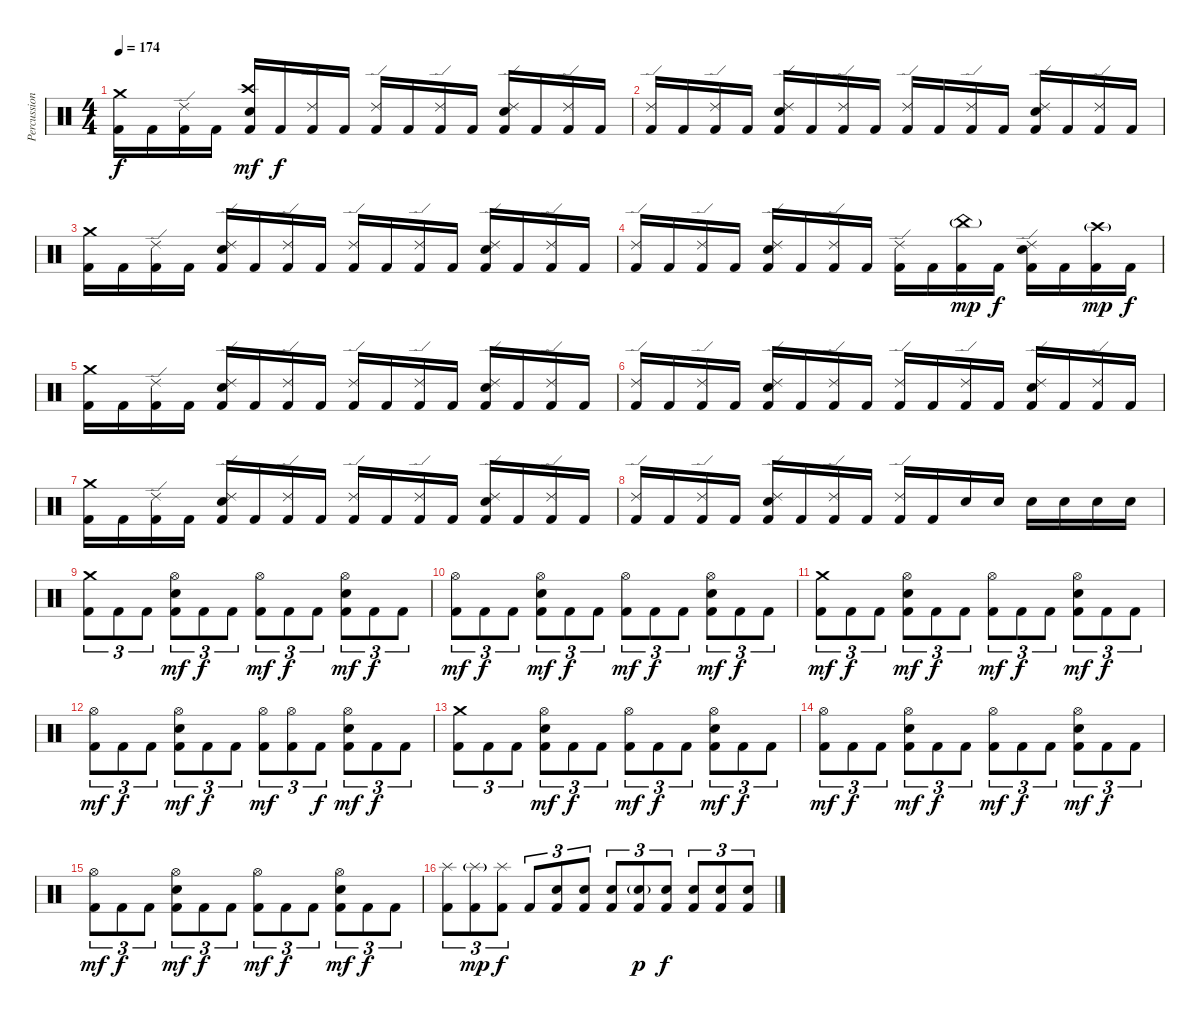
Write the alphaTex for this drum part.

\track ("Percussion" "Percussion") {instrument percussion}
\staff {score}
\articulation defaults
\ts (4 4)
\tempo 174
\clef neutral
\ks c
("Crash medium (hit)" "Kick (hit) 2").16{dy f} "Kick (hit) 2".16 ("Ride (edge) 2" "Kick (hit) 2").16 "Kick (hit) 2".16 ("Crash high (hit)" "Electric Snare (hit)" "Kick (hit) 2").16{dy mf} "Kick (hit) 2".16{dy f} ("Ride (edge) 2" "Kick (hit) 2").16 "Kick (hit) 2".16 ("Ride (edge) 2" "Kick (hit) 2").16 "Kick (hit) 2".16 ("Ride (edge) 2" "Kick (hit) 2").16 "Kick (hit) 2".16 ("Ride (edge) 2" "Electric Snare (hit)" "Kick (hit) 2").16 "Kick (hit) 2".16 ("Ride (edge) 2" "Kick (hit) 2").16 "Kick (hit) 2".16 |
("Ride (edge) 2" "Kick (hit) 2").16 "Kick (hit) 2".16 ("Ride (edge) 2" "Kick (hit) 2").16 "Kick (hit) 2".16 ("Ride (edge) 2" "Electric Snare (hit)" "Kick (hit) 2").16 "Kick (hit) 2".16 ("Ride (edge) 2" "Kick (hit) 2").16 "Kick (hit) 2".16 ("Ride (edge) 2" "Kick (hit) 2").16 "Kick (hit) 2".16 ("Ride (edge) 2" "Kick (hit) 2").16 "Kick (hit) 2".16 ("Ride (edge) 2" "Electric Snare (hit)" "Kick (hit) 2").16 "Kick (hit) 2".16 ("Ride (edge) 2" "Kick (hit) 2").16 "Kick (hit) 2".16 |
("Crash medium (hit)" "Kick (hit) 2").16 "Kick (hit) 2".16 ("Ride (edge) 2" "Kick (hit) 2").16 "Kick (hit) 2".16 ("Ride (edge) 2" "Electric Snare (hit)" "Kick (hit) 2").16 "Kick (hit) 2".16 ("Ride (edge) 2" "Kick (hit) 2").16 "Kick (hit) 2".16 ("Ride (edge) 2" "Kick (hit) 2").16 "Kick (hit) 2".16 ("Ride (edge) 2" "Kick (hit) 2").16 "Kick (hit) 2".16 ("Ride (edge) 2" "Electric Snare (hit)" "Kick (hit) 2").16 "Kick (hit) 2".16 ("Ride (edge) 2" "Kick (hit) 2").16 "Kick (hit) 2".16 |
("Ride (edge) 2" "Kick (hit) 2").16 "Kick (hit) 2".16 ("Ride (edge) 2" "Kick (hit) 2").16 "Kick (hit) 2".16 ("Ride (edge) 2" "Electric Snare (hit)" "Kick (hit) 2").16 "Kick (hit) 2".16 ("Ride (edge) 2" "Kick (hit) 2").16 "Kick (hit) 2".16 ("Ride (edge) 2" "Kick (hit) 2").16 "Kick (hit) 2".16 ("China (hit)"{g} "Kick (hit) 2").16{dy mp} "Kick (hit) 2".16{dy f} ("Ride (edge) 2" "Electric Snare (hit)" "Kick (hit) 2").16 "Kick (hit) 2".16 ("Crash high (hit)"{g} "Kick (hit) 2").16{dy mp} "Kick (hit) 2".16{dy f} |
("Crash medium (hit)" "Kick (hit) 2").16 "Kick (hit) 2".16 ("Ride (edge) 2" "Kick (hit) 2").16 "Kick (hit) 2".16 ("Ride (edge) 2" "Electric Snare (hit)" "Kick (hit) 2").16 "Kick (hit) 2".16 ("Ride (edge) 2" "Kick (hit) 2").16 "Kick (hit) 2".16 ("Ride (edge) 2" "Kick (hit) 2").16 "Kick (hit) 2".16 ("Ride (edge) 2" "Kick (hit) 2").16 "Kick (hit) 2".16 ("Ride (edge) 2" "Electric Snare (hit)" "Kick (hit) 2").16 "Kick (hit) 2".16 ("Ride (edge) 2" "Kick (hit) 2").16 "Kick (hit) 2".16 |
("Ride (edge) 2" "Kick (hit) 2").16 "Kick (hit) 2".16 ("Ride (edge) 2" "Kick (hit) 2").16 "Kick (hit) 2".16 ("Ride (edge) 2" "Electric Snare (hit)" "Kick (hit) 2").16 "Kick (hit) 2".16 ("Ride (edge) 2" "Kick (hit) 2").16 "Kick (hit) 2".16 ("Ride (edge) 2" "Kick (hit) 2").16 "Kick (hit) 2".16 ("Ride (edge) 2" "Kick (hit) 2").16 "Kick (hit) 2".16 ("Ride (edge) 2" "Electric Snare (hit)" "Kick (hit) 2").16 "Kick (hit) 2".16 ("Ride (edge) 2" "Kick (hit) 2").16 "Kick (hit) 2".16 |
("Crash medium (hit)" "Kick (hit) 2").16 "Kick (hit) 2".16 ("Ride (edge) 2" "Kick (hit) 2").16 "Kick (hit) 2".16 ("Ride (edge) 2" "Electric Snare (hit)" "Kick (hit) 2").16 "Kick (hit) 2".16 ("Ride (edge) 2" "Kick (hit) 2").16 "Kick (hit) 2".16 ("Ride (edge) 2" "Kick (hit) 2").16 "Kick (hit) 2".16 ("Ride (edge) 2" "Kick (hit) 2").16 "Kick (hit) 2".16 ("Ride (edge) 2" "Electric Snare (hit)" "Kick (hit) 2").16 "Kick (hit) 2".16 ("Ride (edge) 2" "Kick (hit) 2").16 "Kick (hit) 2".16 |
("Ride (edge) 2" "Kick (hit) 2").16 "Kick (hit) 2".16 ("Ride (edge) 2" "Kick (hit) 2").16 "Kick (hit) 2".16 ("Ride (edge) 2" "Electric Snare (hit)" "Kick (hit) 2").16 "Kick (hit) 2".16 ("Ride (edge) 2" "Kick (hit) 2").16 "Kick (hit) 2".16 ("Ride (edge) 2" "Kick (hit) 2").16 "Kick (hit) 2".16 "Electric Snare (hit)".16 "Electric Snare (hit)".16 "Electric Snare (hit)".16 "Electric Snare (hit)".16 "Electric Snare (hit)".16 "Electric Snare (hit)".16 |
("Crash medium (hit)" "Kick (hit) 2").8{tu (3 2)} "Kick (hit) 2".8{tu (3 2)} "Kick (hit) 2".8{tu (3 2)} ("Hi-Hat (open)" "Electric Snare (hit)" "Kick (hit) 2").8{tu (3 2) dy mf} "Kick (hit) 2".8{tu (3 2) dy f} "Kick (hit) 2".8{tu (3 2)} ("Hi-Hat (open)" "Kick (hit) 2").8{tu (3 2) dy mf} "Kick (hit) 2".8{tu (3 2) dy f} "Kick (hit) 2".8{tu (3 2)} ("Hi-Hat (open)" "Electric Snare (hit)" "Kick (hit) 2").8{tu (3 2) dy mf} "Kick (hit) 2".8{tu (3 2) dy f} "Kick (hit) 2".8{tu (3 2)} |
("Hi-Hat (open)" "Kick (hit) 2").8{tu (3 2) dy mf} "Kick (hit) 2".8{tu (3 2) dy f} "Kick (hit) 2".8{tu (3 2)} ("Hi-Hat (open)" "Electric Snare (hit)" "Kick (hit) 2").8{tu (3 2) dy mf} "Kick (hit) 2".8{tu (3 2) dy f} "Kick (hit) 2".8{tu (3 2)} ("Hi-Hat (open)" "Kick (hit) 2").8{tu (3 2) dy mf} "Kick (hit) 2".8{tu (3 2) dy f} "Kick (hit) 2".8{tu (3 2)} ("Hi-Hat (open)" "Electric Snare (hit)" "Kick (hit) 2").8{tu (3 2) dy mf} "Kick (hit) 2".8{tu (3 2) dy f} "Kick (hit) 2".8{tu (3 2)} |
("Crash medium (hit)" "Kick (hit) 2").8{tu (3 2) dy mf} "Kick (hit) 2".8{tu (3 2) dy f} "Kick (hit) 2".8{tu (3 2)} ("Hi-Hat (open)" "Electric Snare (hit)" "Kick (hit) 2").8{tu (3 2) dy mf} "Kick (hit) 2".8{tu (3 2) dy f} "Kick (hit) 2".8{tu (3 2)} ("Hi-Hat (open)" "Kick (hit) 2").8{tu (3 2) dy mf} "Kick (hit) 2".8{tu (3 2) dy f} "Kick (hit) 2".8{tu (3 2)} ("Hi-Hat (open)" "Electric Snare (hit)" "Kick (hit) 2").8{tu (3 2) dy mf} "Kick (hit) 2".8{tu (3 2) dy f} "Kick (hit) 2".8{tu (3 2)} |
("Hi-Hat (open)" "Kick (hit) 2").8{tu (3 2) dy mf} "Kick (hit) 2".8{tu (3 2) dy f} "Kick (hit) 2".8{tu (3 2)} ("Hi-Hat (open)" "Electric Snare (hit)" "Kick (hit) 2").8{tu (3 2) dy mf} "Kick (hit) 2".8{tu (3 2) dy f} "Kick (hit) 2".8{tu (3 2)} ("Hi-Hat (open)" "Kick (hit) 2").8{tu (3 2) dy mf} ("Hi-Hat (open)" "Kick (hit) 2").8{tu (3 2)} "Kick (hit) 2".8{tu (3 2) dy f} ("Hi-Hat (open)" "Electric Snare (hit)" "Kick (hit) 2").8{tu (3 2) dy mf} "Kick (hit) 2".8{tu (3 2) dy f} "Kick (hit) 2".8{tu (3 2)} |
("Crash medium (hit)" "Kick (hit) 2").8{tu (3 2)} "Kick (hit) 2".8{tu (3 2)} "Kick (hit) 2".8{tu (3 2)} ("Hi-Hat (open)" "Electric Snare (hit)" "Kick (hit) 2").8{tu (3 2) dy mf} "Kick (hit) 2".8{tu (3 2) dy f} "Kick (hit) 2".8{tu (3 2)} ("Hi-Hat (open)" "Kick (hit) 2").8{tu (3 2) dy mf} "Kick (hit) 2".8{tu (3 2) dy f} "Kick (hit) 2".8{tu (3 2)} ("Hi-Hat (open)" "Electric Snare (hit)" "Kick (hit) 2").8{tu (3 2) dy mf} "Kick (hit) 2".8{tu (3 2) dy f} "Kick (hit) 2".8{tu (3 2)} |
("Hi-Hat (open)" "Kick (hit) 2").8{tu (3 2) dy mf} "Kick (hit) 2".8{tu (3 2) dy f} "Kick (hit) 2".8{tu (3 2)} ("Hi-Hat (open)" "Electric Snare (hit)" "Kick (hit) 2").8{tu (3 2) dy mf} "Kick (hit) 2".8{tu (3 2) dy f} "Kick (hit) 2".8{tu (3 2)} ("Hi-Hat (open)" "Kick (hit) 2").8{tu (3 2) dy mf} "Kick (hit) 2".8{tu (3 2) dy f} "Kick (hit) 2".8{tu (3 2)} ("Hi-Hat (open)" "Electric Snare (hit)" "Kick (hit) 2").8{tu (3 2) dy mf} "Kick (hit) 2".8{tu (3 2) dy f} "Kick (hit) 2".8{tu (3 2)} |
("Hi-Hat (open)" "Kick (hit) 2").8{tu (3 2) dy mf} "Kick (hit) 2".8{tu (3 2) dy f} "Kick (hit) 2".8{tu (3 2)} ("Hi-Hat (open)" "Electric Snare (hit)" "Kick (hit) 2").8{tu (3 2) dy mf} "Kick (hit) 2".8{tu (3 2) dy f} "Kick (hit) 2".8{tu (3 2)} ("Hi-Hat (open)" "Kick (hit) 2").8{tu (3 2) dy mf} "Kick (hit) 2".8{tu (3 2) dy f} "Kick (hit) 2".8{tu (3 2)} ("Hi-Hat (open)" "Electric Snare (hit)" "Kick (hit) 2").8{tu (3 2) dy mf} "Kick (hit) 2".8{tu (3 2) dy f} "Kick (hit) 2".8{tu (3 2)} |
("Splash (hit)" "Kick (hit) 2").8{tu (3 2)} ("Splash (hit)"{g} "Kick (hit) 2").8{tu (3 2) dy mp} ("Splash (hit)" "Kick (hit) 2").8{tu (3 2) dy f} "Kick (hit) 2".8{tu (3 2)} ("Electric Snare (hit)" "Kick (hit) 2").8{tu (3 2)} ("Electric Snare (hit)" "Kick (hit) 2").8{tu (3 2)} ("Electric Snare (hit)" "Kick (hit) 2").8{tu (3 2)} ("Electric Snare (hit)"{g} "Kick (hit) 2").8{tu (3 2) dy p} ("Electric Snare (hit)" "Kick (hit) 2").8{tu (3 2) dy f} ("Electric Snare (hit)" "Kick (hit) 2").8{tu (3 2)} ("Electric Snare (hit)" "Kick (hit) 2").8{tu (3 2)} ("Electric Snare (hit)" "Kick (hit) 2").8{tu (3 2)}
